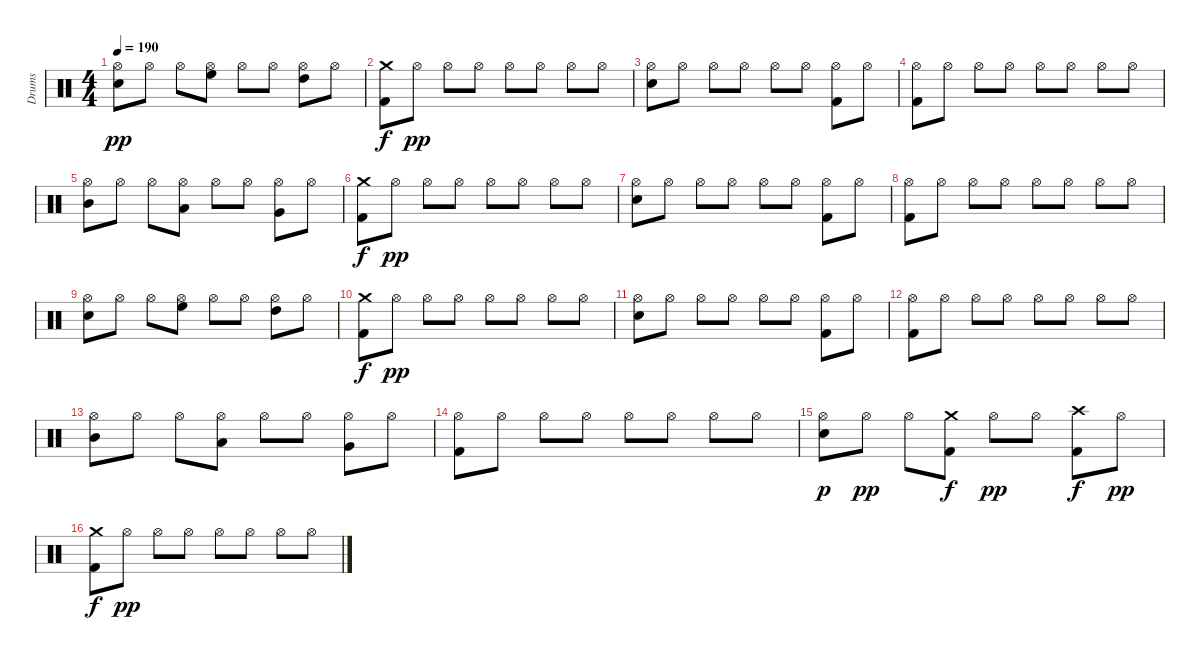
\track ("Drums" "Drums") {instrument percussion}
\staff {score}
\articulation defaults
\ts (4 4)
\tempo 190
\clef neutral
\ks c
("Hi-Hat (open)" "Snare (hit) 2").8{dy pp} "Hi-Hat (open)".8 "Hi-Hat (open)".8 ("Hi-Hat (open)" "High Floor Tom (hit)").8 "Hi-Hat (open)".8 "Hi-Hat (open)".8 ("Hi-Hat (open)" "High Tom (hit)").8 "Hi-Hat (open)".8 |
("Crash medium (hit)" "Kick (hit) 2").8{dy f} "Hi-Hat (open)".8{dy pp} "Hi-Hat (open)".8 "Hi-Hat (open)".8 "Hi-Hat (open)".8 "Hi-Hat (open)".8 "Hi-Hat (open)".8 "Hi-Hat (open)".8 |
("Hi-Hat (open)" "Snare (hit) 2").8 "Hi-Hat (open)".8 "Hi-Hat (open)".8 "Hi-Hat (open)".8 "Hi-Hat (open)".8 "Hi-Hat (open)".8 ("Hi-Hat (open)" "Kick (hit) 2").8 "Hi-Hat (open)".8 |
("Hi-Hat (open)" "Kick (hit) 2").8 "Hi-Hat (open)".8 "Hi-Hat (open)".8 "Hi-Hat (open)".8 "Hi-Hat (open)".8 "Hi-Hat (open)".8 "Hi-Hat (open)".8 "Hi-Hat (open)".8 |
("Hi-Hat (open)" "Mid Tom (hit)").8 "Hi-Hat (open)".8 "Hi-Hat (open)".8 ("Hi-Hat (open)" "Low Tom (hit)").8 "Hi-Hat (open)".8 "Hi-Hat (open)".8 ("Hi-Hat (open)" "Very Low Tom (hit)").8 "Hi-Hat (open)".8 |
("Crash medium (hit)" "Kick (hit) 2").8{dy f} "Hi-Hat (open)".8{dy pp} "Hi-Hat (open)".8 "Hi-Hat (open)".8 "Hi-Hat (open)".8 "Hi-Hat (open)".8 "Hi-Hat (open)".8 "Hi-Hat (open)".8 |
("Hi-Hat (open)" "Snare (hit) 2").8 "Hi-Hat (open)".8 "Hi-Hat (open)".8 "Hi-Hat (open)".8 "Hi-Hat (open)".8 "Hi-Hat (open)".8 ("Hi-Hat (open)" "Kick (hit) 2").8 "Hi-Hat (open)".8 |
("Hi-Hat (open)" "Kick (hit) 2").8 "Hi-Hat (open)".8 "Hi-Hat (open)".8 "Hi-Hat (open)".8 "Hi-Hat (open)".8 "Hi-Hat (open)".8 "Hi-Hat (open)".8 "Hi-Hat (open)".8 |
("Hi-Hat (open)" "Snare (hit) 2").8 "Hi-Hat (open)".8 "Hi-Hat (open)".8 ("Hi-Hat (open)" "High Floor Tom (hit)").8 "Hi-Hat (open)".8 "Hi-Hat (open)".8 ("Hi-Hat (open)" "High Tom (hit)").8 "Hi-Hat (open)".8 |
("Crash medium (hit)" "Kick (hit) 2").8{dy f} "Hi-Hat (open)".8{dy pp} "Hi-Hat (open)".8 "Hi-Hat (open)".8 "Hi-Hat (open)".8 "Hi-Hat (open)".8 "Hi-Hat (open)".8 "Hi-Hat (open)".8 |
("Hi-Hat (open)" "Snare (hit) 2").8 "Hi-Hat (open)".8 "Hi-Hat (open)".8 "Hi-Hat (open)".8 "Hi-Hat (open)".8 "Hi-Hat (open)".8 ("Hi-Hat (open)" "Kick (hit) 2").8 "Hi-Hat (open)".8 |
("Hi-Hat (open)" "Kick (hit) 2").8 "Hi-Hat (open)".8 "Hi-Hat (open)".8 "Hi-Hat (open)".8 "Hi-Hat (open)".8 "Hi-Hat (open)".8 "Hi-Hat (open)".8 "Hi-Hat (open)".8 |
("Hi-Hat (open)" "Mid Tom (hit)").8 "Hi-Hat (open)".8 "Hi-Hat (open)".8 ("Hi-Hat (open)" "Low Tom (hit)").8 "Hi-Hat (open)".8 "Hi-Hat (open)".8 ("Hi-Hat (open)" "Very Low Tom (hit)").8 "Hi-Hat (open)".8 |
("Hi-Hat (open)" "Kick (hit) 2").8 "Hi-Hat (open)".8 "Hi-Hat (open)".8 "Hi-Hat (open)".8 "Hi-Hat (open)".8 "Hi-Hat (open)".8 "Hi-Hat (open)".8 "Hi-Hat (open)".8 |
("Hi-Hat (open)" "Snare (hit) 2").8{dy p} "Hi-Hat (open)".8{dy pp} "Hi-Hat (open)".8 ("Crash medium (hit)" "Kick (hit) 2").8{dy f} "Hi-Hat (open)".8{dy pp} "Hi-Hat (open)".8 ("Crash high (hit)" "Kick (hit) 2").8{dy f} "Hi-Hat (open)".8{dy pp} |
("Crash medium (hit)" "Kick (hit) 2").8{dy f} "Hi-Hat (open)".8{dy pp} "Hi-Hat (open)".8 "Hi-Hat (open)".8 "Hi-Hat (open)".8 "Hi-Hat (open)".8 "Hi-Hat (open)".8 "Hi-Hat (open)".8
